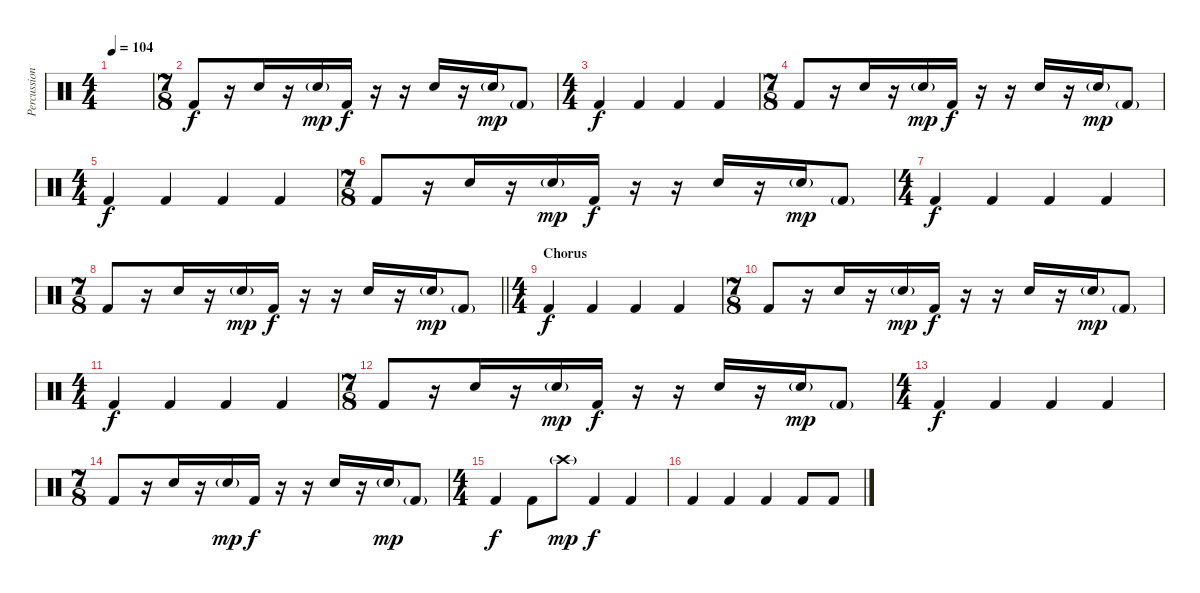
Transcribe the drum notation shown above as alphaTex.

\track ("Percussion" "Percussion") {instrument percussion}
\staff {score}
\articulation defaults
\ts (4 4)
\tempo 104
\clef neutral
\ks c
|
\ts (7 8)
"Kick (hit) 2".8{dy f} r.16 "Snare (hit) 2".16 r.16 "Snare (hit) 2"{g}.16{dy mp} "Kick (hit) 2".16{dy f} r.16 r.16 "Snare (hit) 2".16 r.16 "Snare (hit) 2"{g}.16{dy mp} "Kick (hit) 2"{g}.8 |
\ts (4 4)
"Kick (hit) 2".4{dy f} "Kick (hit) 2".4 "Kick (hit) 2".4 "Kick (hit) 2".4 |
\ts (7 8)
"Kick (hit) 2".8 r.16 "Snare (hit) 2".16 r.16 "Snare (hit) 2"{g}.16{dy mp} "Kick (hit) 2".16{dy f} r.16 r.16 "Snare (hit) 2".16 r.16 "Snare (hit) 2"{g}.16{dy mp} "Kick (hit) 2"{g}.8 |
\ts (4 4)
"Kick (hit) 2".4{dy f} "Kick (hit) 2".4 "Kick (hit) 2".4 "Kick (hit) 2".4 |
\ts (7 8)
"Kick (hit) 2".8 r.16 "Snare (hit) 2".16 r.16 "Snare (hit) 2"{g}.16{dy mp} "Kick (hit) 2".16{dy f} r.16 r.16 "Snare (hit) 2".16 r.16 "Snare (hit) 2"{g}.16{dy mp} "Kick (hit) 2"{g}.8 |
\ts (4 4)
"Kick (hit) 2".4{dy f} "Kick (hit) 2".4 "Kick (hit) 2".4 "Kick (hit) 2".4 |
\ts (7 8)
\barLineRight lightlight "Kick (hit) 2".8
r.16 "Snare (hit) 2".16 r.16 "Snare (hit) 2"{g}.16{dy mp} "Kick (hit) 2".16{dy f} r.16 r.16 "Snare (hit) 2".16 r.16 "Snare (hit) 2"{g}.16{dy mp} "Kick (hit) 2"{g}.8 |
\ts (4 4)
\section ("" "Chorus")
"Kick (hit) 2".4{dy f} "Kick (hit) 2".4 "Kick (hit) 2".4 "Kick (hit) 2".4 |
\ts (7 8)
"Kick (hit) 2".8 r.16 "Snare (hit) 2".16 r.16 "Snare (hit) 2"{g}.16{dy mp} "Kick (hit) 2".16{dy f} r.16 r.16 "Snare (hit) 2".16 r.16 "Snare (hit) 2"{g}.16{dy mp} "Kick (hit) 2"{g}.8 |
\ts (4 4)
"Kick (hit) 2".4{dy f} "Kick (hit) 2".4 "Kick (hit) 2".4 "Kick (hit) 2".4 |
\ts (7 8)
"Kick (hit) 2".8 r.16 "Snare (hit) 2".16 r.16 "Snare (hit) 2"{g}.16{dy mp} "Kick (hit) 2".16{dy f} r.16 r.16 "Snare (hit) 2".16 r.16 "Snare (hit) 2"{g}.16{dy mp} "Kick (hit) 2"{g}.8 |
\ts (4 4)
"Kick (hit) 2".4{dy f} "Kick (hit) 2".4 "Kick (hit) 2".4 "Kick (hit) 2".4 |
\ts (7 8)
"Kick (hit) 2".8 r.16 "Snare (hit) 2".16 r.16 "Snare (hit) 2"{g}.16{dy mp} "Kick (hit) 2".16{dy f} r.16 r.16 "Snare (hit) 2".16 r.16 "Snare (hit) 2"{g}.16{dy mp} "Kick (hit) 2"{g}.8 |
\ts (4 4)
"Kick (hit) 2".4{dy f} "Kick (hit) 2".8 "Crash high (hit)"{g}.8{dy mp} "Kick (hit) 2".4{dy f} "Kick (hit) 2".4 |
"Kick (hit) 2".4 "Kick (hit) 2".4 "Kick (hit) 2".4 "Kick (hit) 2".8 "Kick (hit) 2".8
